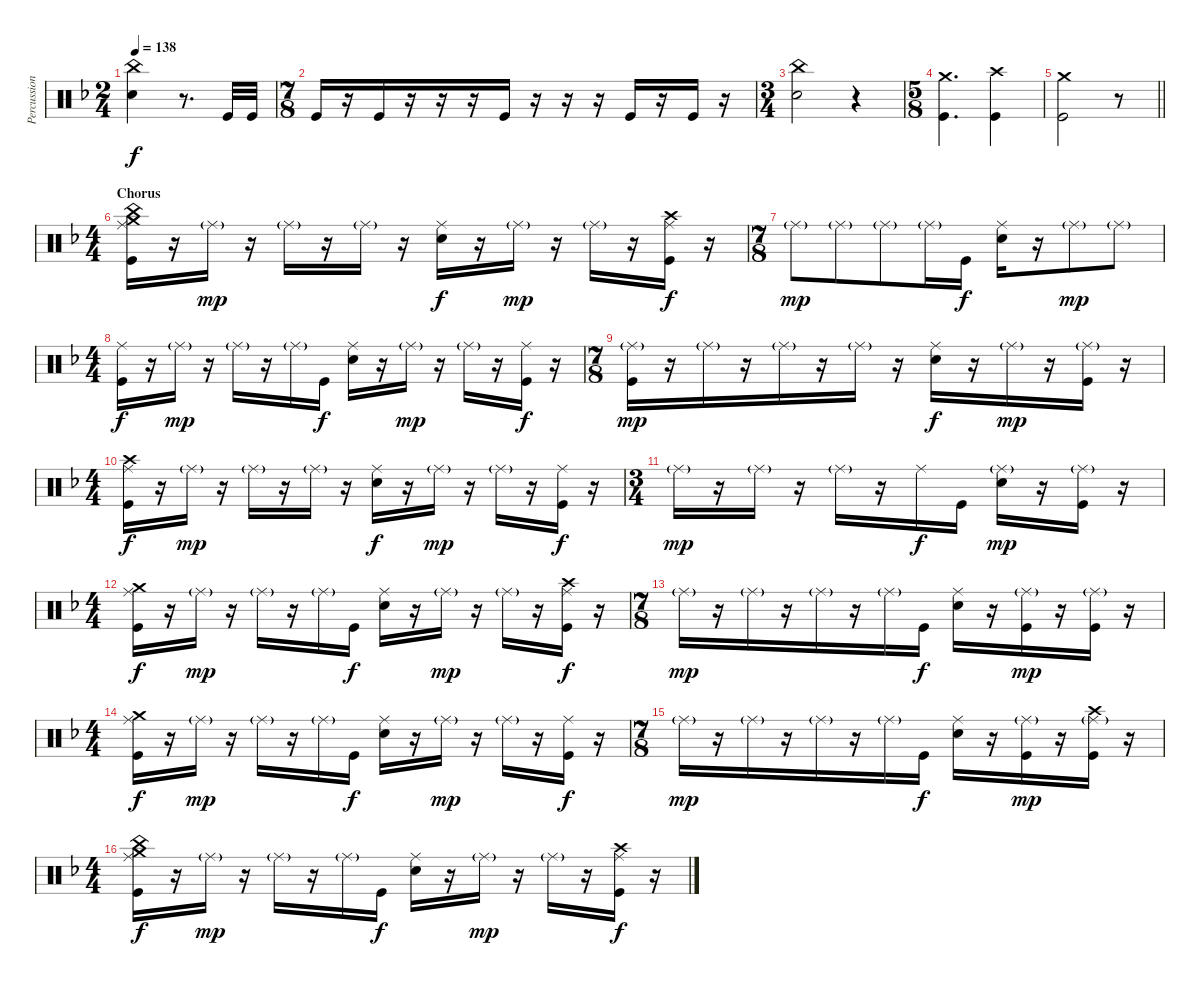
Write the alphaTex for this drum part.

\track ("Percussion" "Percussion") {instrument percussion}
\staff {score}
\articulation defaults
\ts (2 4)
\tempo 138
\clef neutral
\ks f
("China (hit)" "Electric Snare (hit)").4{dy f} r.8{d} "Kick (hit)".32 "Kick (hit)".32 |
\ts (7 8)
"Kick (hit)".16 r.16 "Kick (hit)".16 r.16 r.16 r.16 "Kick (hit)".16 r.16 r.16 r.16 "Kick (hit)".16 r.16 "Kick (hit)".16 r.16 |
\ts (3 4)
("China (hit)" "Electric Snare (hit)").2 r.4 |
\ts (5 8)
("Crash medium (hit)" "Kick (hit)").4{d} ("Crash high (hit)" "Kick (hit)").4 |
\barLineRight lightlight
("Crash medium (hit)" "Kick (hit)").2 r.8 |
\ts (4 4)
\section ("" "Chorus")
("Ride (middle)" "Crash medium (hit)" "China (hit)" "Kick (hit)").16 r.16 "Ride (middle)"{g}.16{dy mp} r.16 "Ride (middle)"{g}.16 r.16 "Ride (middle)"{g}.16 r.16 ("Ride (middle)" "Electric Snare (hit)").16{dy f} r.16 "Ride (middle)"{g}.16{dy mp} r.16 "Ride (middle)"{g}.16 r.16 ("Ride (middle)" "Crash high (hit)" "Kick (hit)").16{dy f} r.16 |
\ts (7 8)
"Ride (middle)"{g}.8{dy mp} "Ride (middle)"{g}.8 "Ride (middle)"{g}.8 "Ride (middle)"{g}.16 "Kick (hit)".16{dy f} ("Ride (middle)" "Electric Snare (hit)").16 r.16 "Ride (middle)"{g}.8{dy mp} "Ride (middle)"{g}.8 |
\ts (4 4)
("Ride (middle)" "Kick (hit)").16{dy f} r.16 "Ride (middle)"{g}.16{dy mp} r.16 "Ride (middle)"{g}.16 r.16 "Ride (middle)"{g}.16 "Kick (hit)".16{dy f} ("Ride (middle)" "Electric Snare (hit)").16 r.16 "Ride (middle)"{g}.16{dy mp} r.16 "Ride (middle)"{g}.16 r.16 ("Ride (middle)" "Kick (hit)").16{dy f} r.16 |
\ts (7 8)
("Ride (middle)"{g} "Kick (hit)").16{dy mp} r.16 "Ride (middle)"{g}.16 r.16 "Ride (middle)"{g}.16 r.16 "Ride (middle)"{g}.16 r.16 ("Ride (middle)" "Electric Snare (hit)").16{dy f} r.16 "Ride (middle)"{g}.16{dy mp} r.16 ("Ride (middle)"{g} "Kick (hit)").16 r.16 |
\ts (4 4)
("Ride (middle)" "Crash high (hit)" "Kick (hit)").16{dy f} r.16 "Ride (middle)"{g}.16{dy mp} r.16 "Ride (middle)"{g}.16 r.16 "Ride (middle)"{g}.16 r.16 ("Ride (middle)" "Electric Snare (hit)").16{dy f} r.16 "Ride (middle)"{g}.16{dy mp} r.16 "Ride (middle)"{g}.16 r.16 ("Ride (middle)" "Kick (hit)").16{dy f} r.16 |
\ts (3 4)
"Ride (middle)"{g}.16{dy mp} r.16 "Ride (middle)"{g}.16 r.16 "Ride (middle)"{g}.16 r.16 "Ride (middle)".16{dy f} "Kick (hit)".16 ("Ride (middle)"{g} "Electric Snare (hit)").16{dy mp} r.16 ("Ride (middle)"{g} "Kick (hit)").16 r.16 |
\ts (4 4)
("Ride (middle)" "Crash medium (hit)" "Kick (hit)").16{dy f} r.16 "Ride (middle)"{g}.16{dy mp} r.16 "Ride (middle)"{g}.16 r.16 "Ride (middle)"{g}.16 "Kick (hit)".16{dy f} ("Ride (middle)" "Electric Snare (hit)").16 r.16 "Ride (middle)"{g}.16{dy mp} r.16 "Ride (middle)"{g}.16 r.16 ("Ride (middle)" "Crash high (hit)" "Kick (hit)").16{dy f} r.16 |
\ts (7 8)
"Ride (middle)"{g}.16{dy mp} r.16 "Ride (middle)"{g}.16 r.16 "Ride (middle)"{g}.16 r.16 "Ride (middle)"{g}.16 "Kick (hit)".16{dy f} ("Ride (middle)" "Electric Snare (hit)").16 r.16 ("Ride (middle)"{g} "Kick (hit)").16{dy mp} r.16 ("Ride (middle)"{g} "Kick (hit)").16 r.16 |
\ts (4 4)
("Ride (middle)" "Crash medium (hit)" "Kick (hit)").16{dy f} r.16 "Ride (middle)"{g}.16{dy mp} r.16 "Ride (middle)"{g}.16 r.16 "Ride (middle)"{g}.16 "Kick (hit)".16{dy f} ("Ride (middle)" "Electric Snare (hit)").16 r.16 "Ride (middle)"{g}.16{dy mp} r.16 "Ride (middle)"{g}.16 r.16 ("Ride (middle)" "Kick (hit)").16{dy f} r.16 |
\ts (7 8)
"Ride (middle)"{g}.16{dy mp} r.16 "Ride (middle)"{g}.16 r.16 "Ride (middle)"{g}.16 r.16 "Ride (middle)"{g}.16 "Kick (hit)".16{dy f} ("Ride (middle)" "Electric Snare (hit)").16 r.16 ("Ride (middle)"{g} "Kick (hit)").16{dy mp} r.16 ("Ride (middle)"{g} "Crash high (hit)" "Kick (hit)").16 r.16 |
\ts (4 4)
("Ride (middle)" "Crash medium (hit)" "China (hit)" "Kick (hit)").16{dy f} r.16 "Ride (middle)"{g}.16{dy mp} r.16 "Ride (middle)"{g}.16 r.16 "Ride (middle)"{g}.16 "Kick (hit)".16{dy f} ("Ride (middle)" "Electric Snare (hit)").16 r.16 "Ride (middle)"{g}.16{dy mp} r.16 "Ride (middle)"{g}.16 r.16 ("Ride (middle)" "Crash high (hit)" "Kick (hit)").16{dy f} r.16
